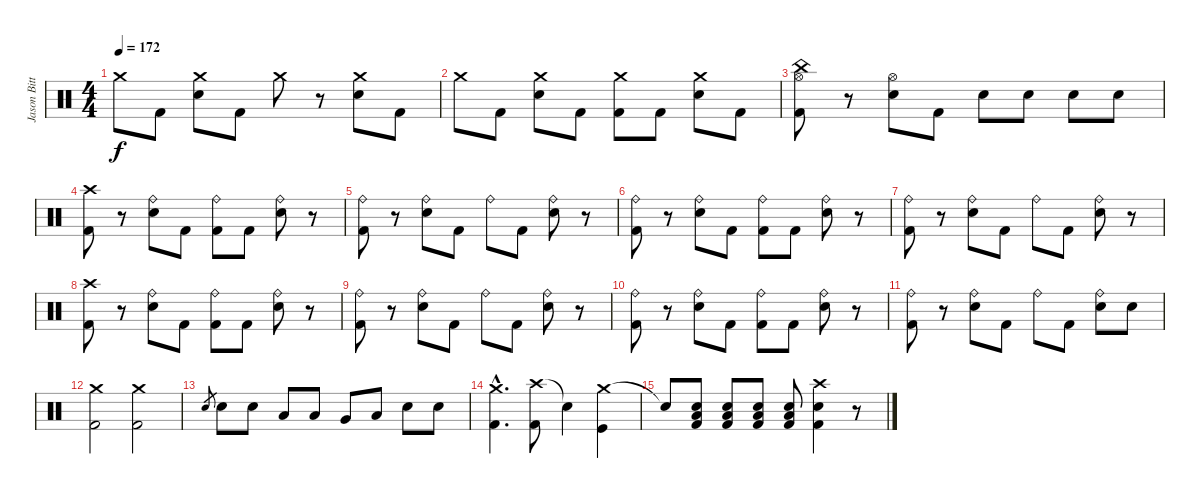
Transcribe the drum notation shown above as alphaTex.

\track ("Jason Bittner" "Jason Bitt") {instrument percussion}
\staff {score}
\articulation defaults
\ts (4 4)
\tempo 172
\clef neutral
\ks c "Crash medium (hit)".8{dy f} "Kick (hit) 2".8
("Crash medium (hit)" "Electric Snare (hit)").8 "Kick (hit) 2".8 "Crash medium (hit)".8 r.8 ("Crash medium (hit)" "Electric Snare (hit)").8 "Kick (hit) 2".8 |
"Crash medium (hit)".8 "Kick (hit) 2".8 ("Crash medium (hit)" "Electric Snare (hit)").8 "Kick (hit) 2".8 ("Crash medium (hit)" "Kick (hit) 2").8 "Kick (hit) 2".8 ("Crash medium (hit)" "Electric Snare (hit)").8 "Kick (hit) 2".8 |
("China (hit)" "Hi-Hat (open)" "Kick (hit) 2").8 r.8 ("Hi-Hat (open)" "Electric Snare (hit)").8 "Kick (hit) 2".8 "Electric Snare (hit)".8 "Electric Snare (hit)".8 "Electric Snare (hit)".8 "Electric Snare (hit)".8 |
("Crash high (hit)" "Kick (hit) 2").8 r.8 ("Ride (bell)" "Electric Snare (hit)").8 "Kick (hit) 2".8 ("Ride (bell)" "Kick (hit) 2").8 "Kick (hit) 2".8 ("Ride (bell)" "Electric Snare (hit)").8 r.8 |
("Ride (bell)" "Kick (hit) 2").8 r.8 ("Ride (bell)" "Electric Snare (hit)").8 "Kick (hit) 2".8 "Ride (bell)".8 "Kick (hit) 2".8 ("Ride (bell)" "Electric Snare (hit)").8 r.8 |
("Ride (bell)" "Kick (hit) 2").8 r.8 ("Ride (bell)" "Electric Snare (hit)").8 "Kick (hit) 2".8 ("Ride (bell)" "Kick (hit) 2").8 "Kick (hit) 2".8 ("Ride (bell)" "Electric Snare (hit)").8 r.8 |
("Ride (bell)" "Kick (hit) 2").8 r.8 ("Ride (bell)" "Electric Snare (hit)").8 "Kick (hit) 2".8 "Ride (bell)".8 "Kick (hit) 2".8 ("Ride (bell)" "Electric Snare (hit)").8 r.8 |
("Crash high (hit)" "Kick (hit) 2").8 r.8 ("Ride (bell)" "Electric Snare (hit)").8 "Kick (hit) 2".8 ("Ride (bell)" "Kick (hit) 2").8 "Kick (hit) 2".8 ("Ride (bell)" "Electric Snare (hit)").8 r.8 |
("Ride (bell)" "Kick (hit) 2").8 r.8 ("Ride (bell)" "Electric Snare (hit)").8 "Kick (hit) 2".8 "Ride (bell)".8 "Kick (hit) 2".8 ("Ride (bell)" "Electric Snare (hit)").8 r.8 |
("Ride (bell)" "Kick (hit) 2").8 r.8 ("Ride (bell)" "Electric Snare (hit)").8 "Kick (hit) 2".8 ("Ride (bell)" "Kick (hit) 2").8 "Kick (hit) 2".8 ("Ride (bell)" "Electric Snare (hit)").8 r.8 |
("Ride (bell)" "Kick (hit) 2").8 r.8 ("Ride (bell)" "Electric Snare (hit)").8 "Kick (hit) 2".8 "Ride (bell)".8 "Kick (hit) 2".8 ("Ride (bell)" "Electric Snare (hit)").8 "Electric Snare (hit)".8 |
("Crash medium (hit)" "Kick (hit) 2").2 ("Crash medium (hit)" "Kick (hit) 2").2 |
"Electric Snare (hit)".8{gr} "Electric Snare (hit)".8 "Electric Snare (hit)".8 "Low Tom (hit)".8 "Low Tom (hit)".8 "Very Low Tom (hit)".8 "Low Floor Tom (hit)".8 "Electric Snare (hit)".8 "Electric Snare (hit)".8 |
("Crash medium (hit)"{hac} "Kick (hit) 2"{hac}).4{d} ("Crash high (hit)" "Kick (hit) 2").8 "Snare (hit)"{t}.4 ("Crash medium (hit)" "Kick (hit)").4 |
"Electric Snare (hit)"{t}.8 ("Kick (hit) 2" "Electric Snare (hit)" "Low Floor Tom (hit)").8 ("Kick (hit) 2" "Electric Snare (hit)" "Low Floor Tom (hit)").8 ("Kick (hit) 2" "Electric Snare (hit)" "Low Floor Tom (hit)").8 ("Kick (hit) 2" "Electric Snare (hit)" "Low Floor Tom (hit)").8 ("Crash high (hit)" "Kick (hit) 2" "Electric Snare (hit)").4 r.8
